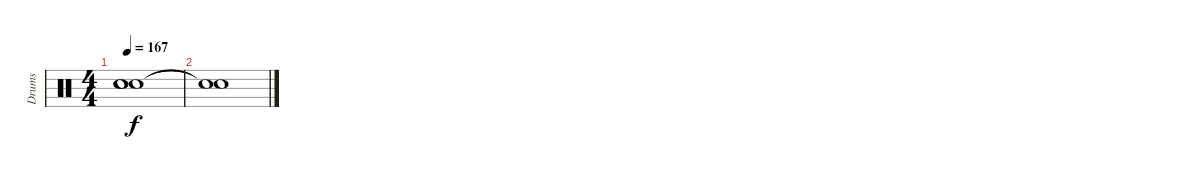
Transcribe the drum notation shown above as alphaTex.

\track ("Drums" "Drums") {instrument percussion}
\staff {score}
\articulation defaults
\ts (4 4)
\tempo 167
\clef neutral
\ks c
("Snare (hit)"{t} "Snare (hit)"{t} "Snare (hit)"{t}).1{dy f} |
("Snare (hit)"{t} "Snare (hit)"{t}).1
